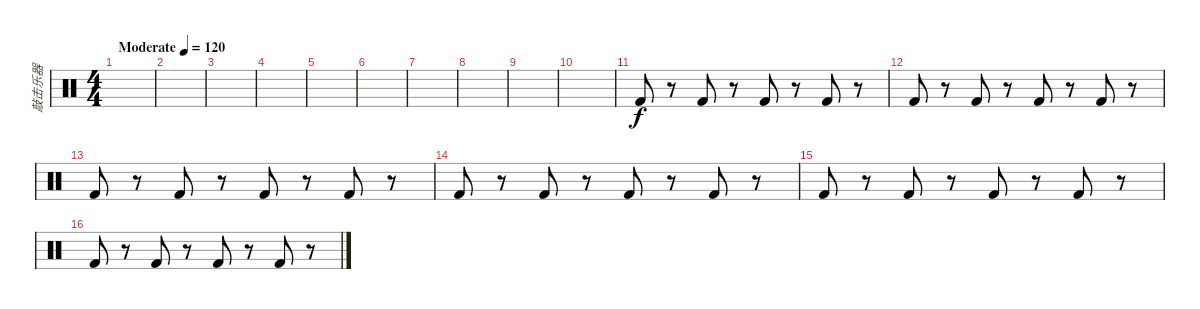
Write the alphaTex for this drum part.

\track ("敲击乐器" "敲击乐器") {instrument percussion}
\staff {score}
\articulation defaults
\ts (4 4)
\tempo (120 "Moderate")
\clef neutral
\ks c
|
|
|
|
|
|
|
|
|
|
"Kick (hit) 2".8 r.8 "Kick (hit) 2".8 r.8 "Kick (hit) 2".8 r.8 "Kick (hit) 2".8 r.8 |
"Kick (hit) 2".8 r.8 "Kick (hit) 2".8 r.8 "Kick (hit) 2".8 r.8 "Kick (hit) 2".8 r.8 |
"Kick (hit) 2".8 r.8 "Kick (hit) 2".8 r.8 "Kick (hit) 2".8 r.8 "Kick (hit) 2".8 r.8 |
"Kick (hit) 2".8 r.8 "Kick (hit) 2".8 r.8 "Kick (hit) 2".8 r.8 "Kick (hit) 2".8 r.8 |
"Kick (hit) 2".8 r.8 "Kick (hit) 2".8 r.8 "Kick (hit) 2".8 r.8 "Kick (hit) 2".8 r.8 |
"Kick (hit) 2".8 r.8 "Kick (hit) 2".8 r.8 "Kick (hit) 2".8 r.8 "Kick (hit) 2".8 r.8
